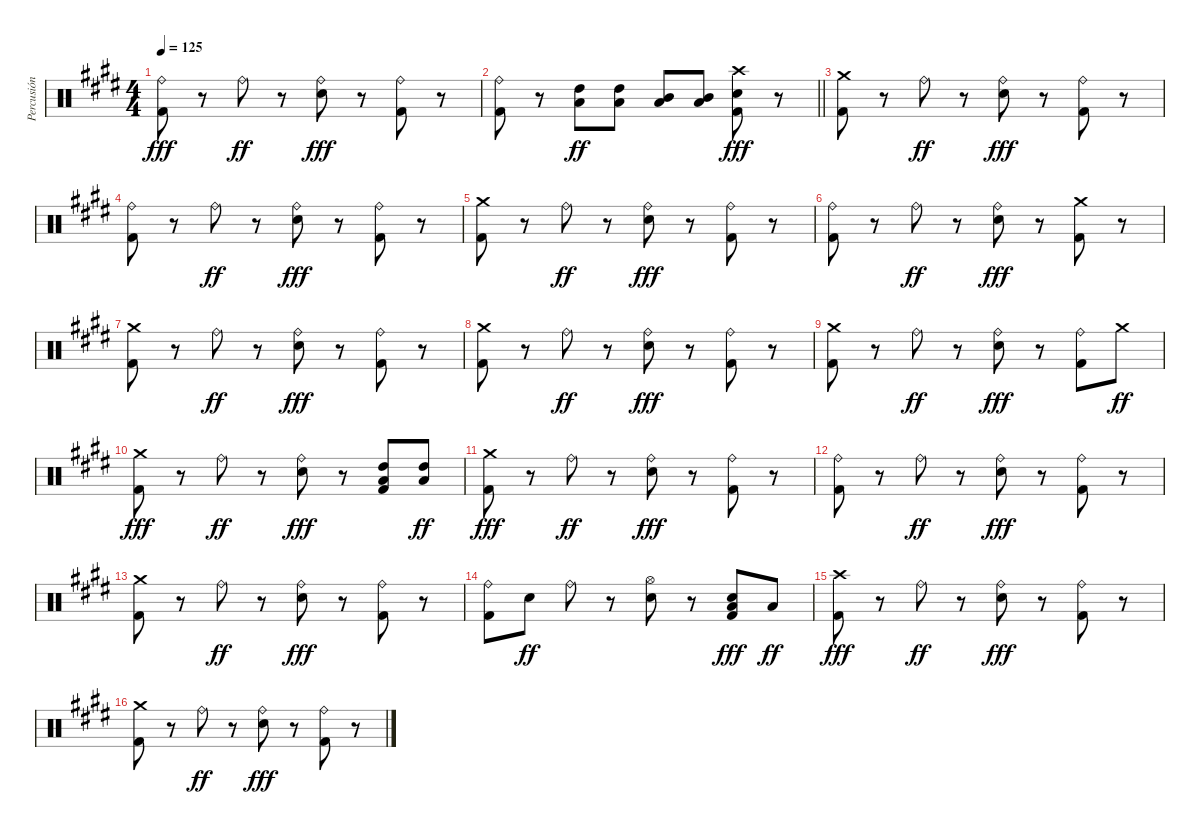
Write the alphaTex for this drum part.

\track ("Percusión" "Percusión") {instrument percussion}
\staff {score}
\articulation defaults
\ts (4 4)
\tempo 125
\clef neutral
\ks e
("Ride (bell)" "Kick (hit) 2").8{dy fff} r.8 "Ride (bell)".8{dy ff} r.8 ("Ride (bell)" "Electric Snare (hit)").8{dy fff} r.8 ("Ride (bell)" "Kick (hit) 2").8 r.8 |
\barLineRight lightlight
("Ride (bell)" "Kick (hit) 2").8 r.8 ("Low Tom (hit)" "High Tom (hit)").8{dy ff} ("Low Tom (hit)" "High Tom (hit)").8 ("Low Tom (hit)" "Mid Tom (hit)").8 ("Low Tom (hit)" "Mid Tom (hit)").8 ("Crash high (hit)" "Electric Snare (hit)" "Kick (hit) 2").8{dy fff} r.8 |
("Crash medium (hit)" "Kick (hit) 2").8 r.8 "Ride (bell)".8{dy ff} r.8 ("Ride (bell)" "Electric Snare (hit)").8{dy fff} r.8 ("Ride (bell)" "Kick (hit) 2").8 r.8 |
("Ride (bell)" "Kick (hit) 2").8 r.8 "Ride (bell)".8{dy ff} r.8 ("Ride (bell)" "Electric Snare (hit)").8{dy fff} r.8 ("Ride (bell)" "Kick (hit) 2").8 r.8 |
("Crash medium (hit)" "Kick (hit) 2").8 r.8 "Ride (bell)".8{dy ff} r.8 ("Ride (bell)" "Electric Snare (hit)").8{dy fff} r.8 ("Ride (bell)" "Kick (hit) 2").8 r.8 |
("Ride (bell)" "Kick (hit) 2").8 r.8 "Ride (bell)".8{dy ff} r.8 ("Ride (bell)" "Electric Snare (hit)").8{dy fff} r.8 ("Crash medium (hit)" "Kick (hit) 2").8 r.8 |
("Crash medium (hit)" "Kick (hit) 2").8 r.8 "Ride (bell)".8{dy ff} r.8 ("Ride (bell)" "Electric Snare (hit)").8{dy fff} r.8 ("Ride (bell)" "Kick (hit) 2").8 r.8 |
("Crash medium (hit)" "Kick (hit) 2").8 r.8 "Ride (bell)".8{dy ff} r.8 ("Ride (bell)" "Electric Snare (hit)").8{dy fff} r.8 ("Ride (bell)" "Kick (hit) 2").8 r.8 |
("Crash medium (hit)" "Kick (hit) 2").8 r.8 "Ride (bell)".8{dy ff} r.8 ("Ride (bell)" "Electric Snare (hit)").8{dy fff} r.8 ("Ride (bell)" "Kick (hit) 2").8 "Crash medium (hit)".8{dy ff} |
("Crash medium (hit)" "Kick (hit) 2").8{dy fff} r.8 "Ride (bell)".8{dy ff} r.8 ("Ride (bell)" "Electric Snare (hit)").8{dy fff} r.8 ("High Tom (hit)" "Low Tom (hit)" "Kick (hit) 2").8 ("High Tom (hit)" "Low Tom (hit)").8{dy ff} |
("Crash medium (hit)" "Kick (hit) 2").8{dy fff} r.8 "Ride (bell)".8{dy ff} r.8 ("Ride (bell)" "Electric Snare (hit)").8{dy fff} r.8 ("Ride (bell)" "Kick (hit) 2").8 r.8 |
("Ride (bell)" "Kick (hit) 2").8 r.8 "Ride (bell)".8{dy ff} r.8 ("Ride (bell)" "Electric Snare (hit)").8{dy fff} r.8 ("Ride (bell)" "Kick (hit) 2").8 r.8 |
("Crash medium (hit)" "Kick (hit) 2").8 r.8 "Ride (bell)".8{dy ff} r.8 ("Ride (bell)" "Electric Snare (hit)").8{dy fff} r.8 ("Ride (bell)" "Kick (hit) 2").8 r.8 |
("Ride (bell)" "Kick (hit) 2").8 "Electric Snare (hit)".8{dy ff} "Ride (bell)".8 r.8 ("Hi-Hat (open)" "Electric Snare (hit)").8 r.8 ("Electric Snare (hit)" "Low Tom (hit)" "Kick (hit) 2").8{dy fff} "Low Tom (hit)".8{dy ff} |
("Crash high (hit)" "Kick (hit) 2").8{dy fff} r.8 "Ride (bell)".8{dy ff} r.8 ("Ride (bell)" "Electric Snare (hit)").8{dy fff} r.8 ("Ride (bell)" "Kick (hit) 2").8 r.8 |
("Crash medium (hit)" "Kick (hit) 2").8 r.8 "Ride (bell)".8{dy ff} r.8 ("Ride (bell)" "Electric Snare (hit)").8{dy fff} r.8 ("Ride (bell)" "Kick (hit) 2").8 r.8
